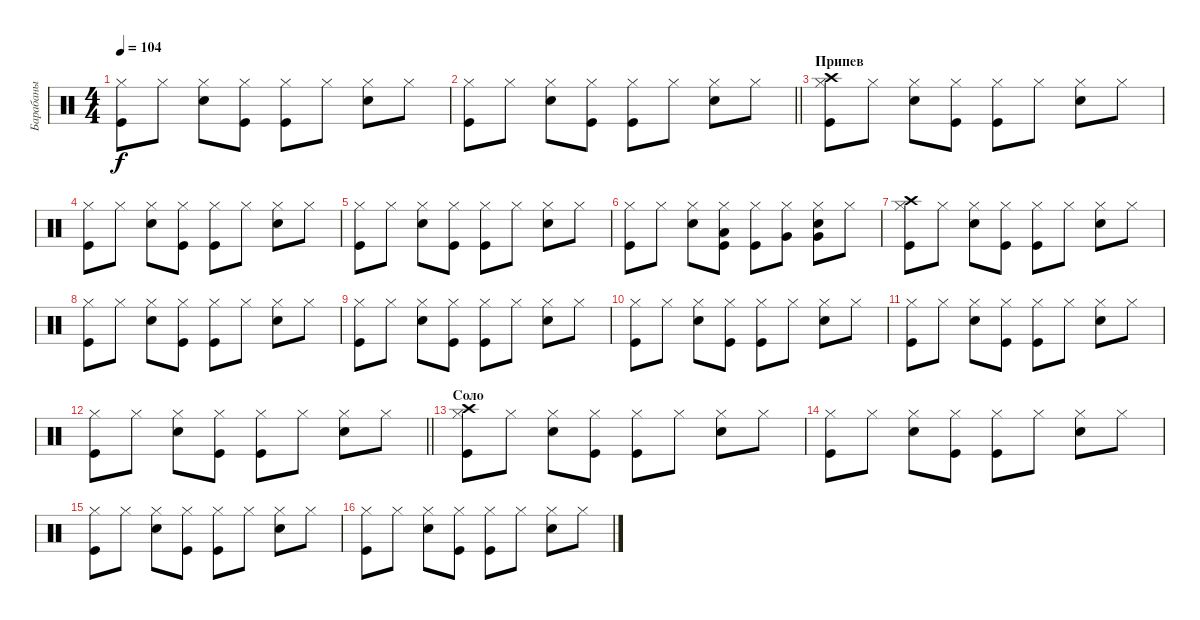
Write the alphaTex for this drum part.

\track ("Барабаны" "Барабаны") {instrument percussion}
\staff {score}
\articulation defaults
\ts (4 4)
\tempo 104
\clef neutral
\ks c
("Kick (hit)" "Hi-Hat (closed)").8{dy f} "Hi-Hat (closed)".8 ("Snare (hit) 2" "Hi-Hat (closed)").8 ("Kick (hit)" "Hi-Hat (closed)").8 ("Kick (hit)" "Hi-Hat (closed)").8 "Hi-Hat (closed)".8 ("Snare (hit) 2" "Hi-Hat (closed)").8 "Hi-Hat (closed)".8 |
\barLineRight lightlight
("Kick (hit)" "Hi-Hat (closed)").8 "Hi-Hat (closed)".8 ("Snare (hit) 2" "Hi-Hat (closed)").8 ("Kick (hit)" "Hi-Hat (closed)").8 ("Kick (hit)" "Hi-Hat (closed)").8 "Hi-Hat (closed)".8 ("Snare (hit) 2" "Hi-Hat (closed)").8 "Hi-Hat (closed)".8 |
\section ("" "Припев")
("Kick (hit)" "Hi-Hat (closed)" "Crash high (hit)").8 "Hi-Hat (closed)".8 ("Snare (hit) 2" "Hi-Hat (closed)").8 ("Kick (hit)" "Hi-Hat (closed)").8 ("Kick (hit)" "Hi-Hat (closed)").8 "Hi-Hat (closed)".8 ("Snare (hit) 2" "Hi-Hat (closed)").8 "Hi-Hat (closed)".8 |
("Kick (hit)" "Hi-Hat (closed)").8 "Hi-Hat (closed)".8 ("Snare (hit) 2" "Hi-Hat (closed)").8 ("Kick (hit)" "Hi-Hat (closed)").8 ("Kick (hit)" "Hi-Hat (closed)").8 "Hi-Hat (closed)".8 ("Snare (hit) 2" "Hi-Hat (closed)").8 "Hi-Hat (closed)".8 |
("Kick (hit)" "Hi-Hat (closed)").8 "Hi-Hat (closed)".8 ("Snare (hit) 2" "Hi-Hat (closed)").8 ("Kick (hit)" "Hi-Hat (closed)").8 ("Kick (hit)" "Hi-Hat (closed)").8 "Hi-Hat (closed)".8 ("Snare (hit) 2" "Hi-Hat (closed)").8 "Hi-Hat (closed)".8 |
("Kick (hit)" "Hi-Hat (closed)").8 "Hi-Hat (closed)".8 ("Snare (hit) 2" "Hi-Hat (closed)").8 ("Kick (hit)" "Hi-Hat (closed)" "Low Floor Tom (hit)").8 ("Kick (hit)" "Hi-Hat (closed)").8 ("Hi-Hat (closed)" "Very Low Tom (hit)").8 ("Snare (hit) 2" "Hi-Hat (closed)" "Very Low Tom (hit)").8 "Hi-Hat (closed)".8 |
("Kick (hit)" "Hi-Hat (closed)" "Crash high (hit)").8 "Hi-Hat (closed)".8 ("Snare (hit) 2" "Hi-Hat (closed)").8 ("Kick (hit)" "Hi-Hat (closed)").8 ("Kick (hit)" "Hi-Hat (closed)").8 "Hi-Hat (closed)".8 ("Snare (hit) 2" "Hi-Hat (closed)").8 "Hi-Hat (closed)".8 |
("Kick (hit)" "Hi-Hat (closed)").8 "Hi-Hat (closed)".8 ("Snare (hit) 2" "Hi-Hat (closed)").8 ("Kick (hit)" "Hi-Hat (closed)").8 ("Kick (hit)" "Hi-Hat (closed)").8 "Hi-Hat (closed)".8 ("Snare (hit) 2" "Hi-Hat (closed)").8 "Hi-Hat (closed)".8 |
("Kick (hit)" "Hi-Hat (closed)").8 "Hi-Hat (closed)".8 ("Snare (hit) 2" "Hi-Hat (closed)").8 ("Kick (hit)" "Hi-Hat (closed)").8 ("Kick (hit)" "Hi-Hat (closed)").8 "Hi-Hat (closed)".8 ("Snare (hit) 2" "Hi-Hat (closed)").8 "Hi-Hat (closed)".8 |
("Kick (hit)" "Hi-Hat (closed)").8 "Hi-Hat (closed)".8 ("Snare (hit) 2" "Hi-Hat (closed)").8 ("Kick (hit)" "Hi-Hat (closed)").8 ("Kick (hit)" "Hi-Hat (closed)").8 "Hi-Hat (closed)".8 ("Snare (hit) 2" "Hi-Hat (closed)").8 "Hi-Hat (closed)".8 |
("Kick (hit)" "Hi-Hat (closed)").8 "Hi-Hat (closed)".8 ("Snare (hit) 2" "Hi-Hat (closed)").8 ("Kick (hit)" "Hi-Hat (closed)").8 ("Kick (hit)" "Hi-Hat (closed)").8 "Hi-Hat (closed)".8 ("Snare (hit) 2" "Hi-Hat (closed)").8 "Hi-Hat (closed)".8 |
\barLineRight lightlight
("Kick (hit)" "Hi-Hat (closed)").8 "Hi-Hat (closed)".8 ("Snare (hit) 2" "Hi-Hat (closed)").8 ("Kick (hit)" "Hi-Hat (closed)").8 ("Kick (hit)" "Hi-Hat (closed)").8 "Hi-Hat (closed)".8 ("Snare (hit) 2" "Hi-Hat (closed)").8 "Hi-Hat (closed)".8 |
\section ("" "Соло")
("Kick (hit)" "Hi-Hat (closed)" "Crash high (hit)").8 "Hi-Hat (closed)".8 ("Snare (hit) 2" "Hi-Hat (closed)").8 ("Kick (hit)" "Hi-Hat (closed)").8 ("Kick (hit)" "Hi-Hat (closed)").8 "Hi-Hat (closed)".8 ("Snare (hit) 2" "Hi-Hat (closed)").8 "Hi-Hat (closed)".8 |
("Kick (hit)" "Hi-Hat (closed)").8 "Hi-Hat (closed)".8 ("Snare (hit) 2" "Hi-Hat (closed)").8 ("Kick (hit)" "Hi-Hat (closed)").8 ("Kick (hit)" "Hi-Hat (closed)").8 "Hi-Hat (closed)".8 ("Snare (hit) 2" "Hi-Hat (closed)").8 "Hi-Hat (closed)".8 |
("Kick (hit)" "Hi-Hat (closed)").8 "Hi-Hat (closed)".8 ("Snare (hit) 2" "Hi-Hat (closed)").8 ("Kick (hit)" "Hi-Hat (closed)").8 ("Kick (hit)" "Hi-Hat (closed)").8 "Hi-Hat (closed)".8 ("Snare (hit) 2" "Hi-Hat (closed)").8 "Hi-Hat (closed)".8 |
("Kick (hit)" "Hi-Hat (closed)").8 "Hi-Hat (closed)".8 ("Snare (hit) 2" "Hi-Hat (closed)").8 ("Kick (hit)" "Hi-Hat (closed)").8 ("Kick (hit)" "Hi-Hat (closed)").8 "Hi-Hat (closed)".8 ("Snare (hit) 2" "Hi-Hat (closed)").8 "Hi-Hat (closed)".8
